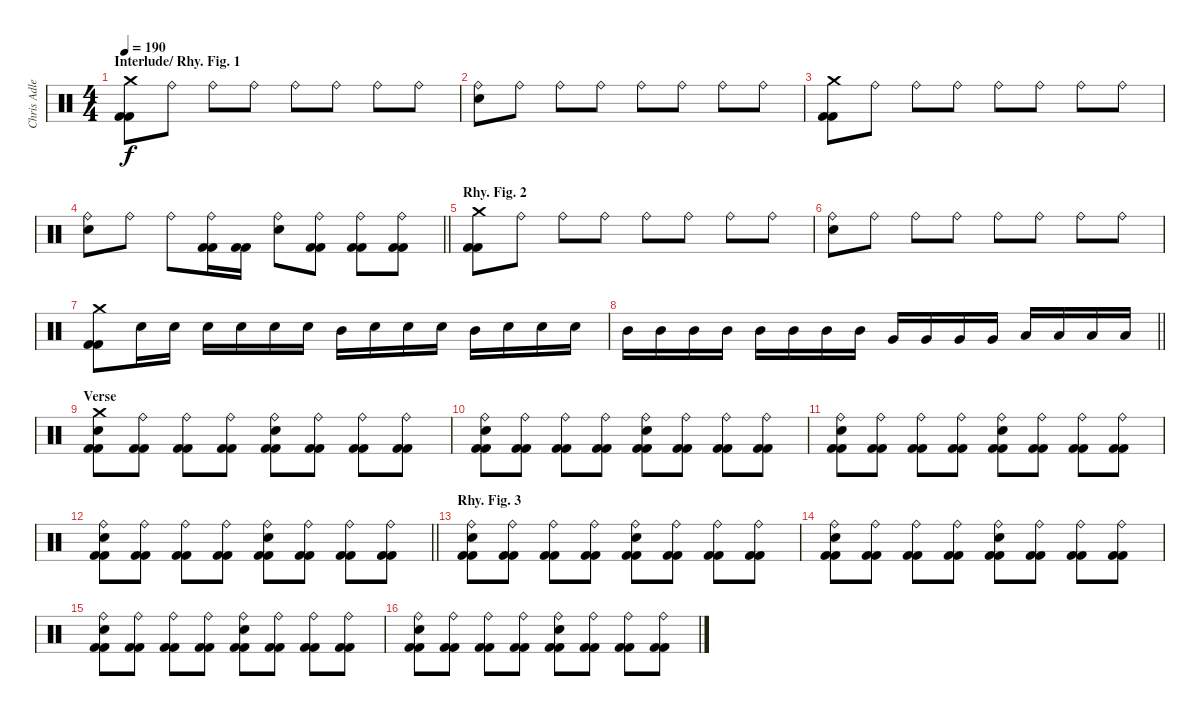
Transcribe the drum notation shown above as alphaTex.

\track ("Chris Adler" "Chris Adle") {instrument percussion}
\staff {score}
\articulation defaults
\ts (4 4)
\section ("" "Interlude/ Rhy. Fig. 1")
\tempo 190
\clef neutral
\ks c
("Crash medium (hit)" "Kick (hit) 2" "Kick (hit) 2").8{dy f} "Ride (bell)".8 "Ride (bell)".8 "Ride (bell)".8 "Ride (bell)".8 "Ride (bell)".8 "Ride (bell)".8 "Ride (bell)".8 |
("Ride (bell)" "Electric Snare (hit)").8 "Ride (bell)".8 "Ride (bell)".8 "Ride (bell)".8 "Ride (bell)".8 "Ride (bell)".8 "Ride (bell)".8 "Ride (bell)".8 |
("Crash medium (hit)" "Kick (hit) 2" "Kick (hit) 2").8 "Ride (bell)".8 "Ride (bell)".8 "Ride (bell)".8 "Ride (bell)".8 "Ride (bell)".8 "Ride (bell)".8 "Ride (bell)".8 |
\barLineRight lightlight
("Ride (bell)" "Electric Snare (hit)").8 "Ride (bell)".8 "Ride (bell)".8 ("Ride (bell)" "Kick (hit) 2" "Kick (hit) 2").16 ("Kick (hit) 2" "Kick (hit) 2").16 ("Ride (bell)" "Electric Snare (hit)").8 ("Ride (bell)" "Kick (hit) 2" "Kick (hit) 2").8 ("Ride (bell)" "Kick (hit) 2" "Kick (hit) 2").8 ("Ride (bell)" "Kick (hit) 2" "Kick (hit) 2").8 |
\section ("" "Rhy. Fig. 2")
("Crash medium (hit)" "Kick (hit) 2" "Kick (hit) 2").8 "Ride (bell)".8 "Ride (bell)".8 "Ride (bell)".8 "Ride (bell)".8 "Ride (bell)".8 "Ride (bell)".8 "Ride (bell)".8 |
("Ride (bell)" "Electric Snare (hit)").8 "Ride (bell)".8 "Ride (bell)".8 "Ride (bell)".8 "Ride (bell)".8 "Ride (bell)".8 "Ride (bell)".8 "Ride (bell)".8 |
("Crash medium (hit)" "Kick (hit) 2" "Kick (hit) 2").8 "Electric Snare (hit)".16 "Electric Snare (hit)".16 "Electric Snare (hit)".16 "Electric Snare (hit)".16 "Electric Snare (hit)".16 "Electric Snare (hit)".16 "Mid Tom (hit)".16 "Electric Snare (hit)".16 "Electric Snare (hit)".16 "Electric Snare (hit)".16 "Mid Tom (hit)".16 "Electric Snare (hit)".16 "Electric Snare (hit)".16 "Electric Snare (hit)".16 |
\barLineRight lightlight "Mid Tom (hit)".16 "Mid Tom (hit)".16 "Mid Tom (hit)".16 "Mid Tom (hit)".16 "Mid Tom (hit)".16 "Mid Tom (hit)".16 "Mid Tom (hit)".16 "Mid Tom (hit)".16 "Very Low Tom (hit)".16 "Very Low Tom (hit)".16 "Very Low Tom (hit)".16 "Very Low Tom (hit)".16 "Low Floor Tom (hit)".16 "Low Floor Tom (hit)".16 "Low Floor Tom (hit)".16 "Low Floor Tom (hit)".16
|
\section ("" "Verse")
("Crash medium (hit)" "Electric Snare (hit)" "Kick (hit) 2" "Kick (hit) 2").8 ("Ride (bell)" "Kick (hit) 2" "Kick (hit) 2").8 ("Ride (bell)" "Kick (hit) 2" "Kick (hit) 2").8 ("Ride (bell)" "Kick (hit) 2" "Kick (hit) 2").8 ("Ride (bell)" "Electric Snare (hit)" "Kick (hit) 2" "Kick (hit) 2").8 ("Ride (bell)" "Kick (hit) 2" "Kick (hit) 2").8 ("Ride (bell)" "Kick (hit) 2" "Kick (hit) 2").8 ("Ride (bell)" "Kick (hit) 2" "Kick (hit) 2").8 |
("Ride (bell)" "Electric Snare (hit)" "Kick (hit) 2" "Kick (hit) 2").8 ("Ride (bell)" "Kick (hit) 2" "Kick (hit) 2").8 ("Ride (bell)" "Kick (hit) 2" "Kick (hit) 2").8 ("Ride (bell)" "Kick (hit) 2" "Kick (hit) 2").8 ("Ride (bell)" "Electric Snare (hit)" "Kick (hit) 2" "Kick (hit) 2").8 ("Ride (bell)" "Kick (hit) 2" "Kick (hit) 2").8 ("Ride (bell)" "Kick (hit) 2" "Kick (hit) 2").8 ("Ride (bell)" "Kick (hit) 2" "Kick (hit) 2").8 |
("Ride (bell)" "Electric Snare (hit)" "Kick (hit) 2" "Kick (hit) 2").8 ("Ride (bell)" "Kick (hit) 2" "Kick (hit) 2").8 ("Ride (bell)" "Kick (hit) 2" "Kick (hit) 2").8 ("Ride (bell)" "Kick (hit) 2" "Kick (hit) 2").8 ("Ride (bell)" "Electric Snare (hit)" "Kick (hit) 2" "Kick (hit) 2").8 ("Ride (bell)" "Kick (hit) 2" "Kick (hit) 2").8 ("Ride (bell)" "Kick (hit) 2" "Kick (hit) 2").8 ("Ride (bell)" "Kick (hit) 2" "Kick (hit) 2").8 |
\barLineRight lightlight
("Ride (bell)" "Electric Snare (hit)" "Kick (hit) 2" "Kick (hit) 2").8 ("Ride (bell)" "Kick (hit) 2" "Kick (hit) 2").8 ("Ride (bell)" "Kick (hit) 2" "Kick (hit) 2").8 ("Ride (bell)" "Kick (hit) 2" "Kick (hit) 2").8 ("Ride (bell)" "Electric Snare (hit)" "Kick (hit) 2" "Kick (hit) 2").8 ("Ride (bell)" "Kick (hit) 2" "Kick (hit) 2").8 ("Ride (bell)" "Kick (hit) 2" "Kick (hit) 2").8 ("Ride (bell)" "Kick (hit) 2" "Kick (hit) 2").8 |
\section ("" "Rhy. Fig. 3")
("Ride (bell)" "Electric Snare (hit)" "Kick (hit) 2" "Kick (hit) 2").8 ("Ride (bell)" "Kick (hit) 2" "Kick (hit) 2").8 ("Ride (bell)" "Kick (hit) 2" "Kick (hit) 2").8 ("Ride (bell)" "Kick (hit) 2" "Kick (hit) 2").8 ("Ride (bell)" "Electric Snare (hit)" "Kick (hit) 2" "Kick (hit) 2").8 ("Ride (bell)" "Kick (hit) 2" "Kick (hit) 2").8 ("Ride (bell)" "Kick (hit) 2" "Kick (hit) 2").8 ("Ride (bell)" "Kick (hit) 2" "Kick (hit) 2").8 |
("Ride (bell)" "Electric Snare (hit)" "Kick (hit) 2" "Kick (hit) 2").8 ("Ride (bell)" "Kick (hit) 2" "Kick (hit) 2").8 ("Ride (bell)" "Kick (hit) 2" "Kick (hit) 2").8 ("Ride (bell)" "Kick (hit) 2" "Kick (hit) 2").8 ("Ride (bell)" "Electric Snare (hit)" "Kick (hit) 2" "Kick (hit) 2").8 ("Ride (bell)" "Kick (hit) 2" "Kick (hit) 2").8 ("Ride (bell)" "Kick (hit) 2" "Kick (hit) 2").8 ("Ride (bell)" "Kick (hit) 2" "Kick (hit) 2").8 |
("Ride (bell)" "Electric Snare (hit)" "Kick (hit) 2" "Kick (hit) 2").8 ("Ride (bell)" "Kick (hit) 2" "Kick (hit) 2").8 ("Ride (bell)" "Kick (hit) 2" "Kick (hit) 2").8 ("Ride (bell)" "Kick (hit) 2" "Kick (hit) 2").8 ("Ride (bell)" "Electric Snare (hit)" "Kick (hit) 2" "Kick (hit) 2").8 ("Ride (bell)" "Kick (hit) 2" "Kick (hit) 2").8 ("Ride (bell)" "Kick (hit) 2" "Kick (hit) 2").8 ("Ride (bell)" "Kick (hit) 2" "Kick (hit) 2").8 |
("Ride (bell)" "Electric Snare (hit)" "Kick (hit) 2" "Kick (hit) 2").8 ("Ride (bell)" "Kick (hit) 2" "Kick (hit) 2").8 ("Ride (bell)" "Kick (hit) 2" "Kick (hit) 2").8 ("Ride (bell)" "Kick (hit) 2" "Kick (hit) 2").8 ("Ride (bell)" "Electric Snare (hit)" "Kick (hit) 2" "Kick (hit) 2").8 ("Ride (bell)" "Kick (hit) 2" "Kick (hit) 2").8 ("Ride (bell)" "Kick (hit) 2" "Kick (hit) 2").8 ("Ride (bell)" "Kick (hit) 2" "Kick (hit) 2").8
